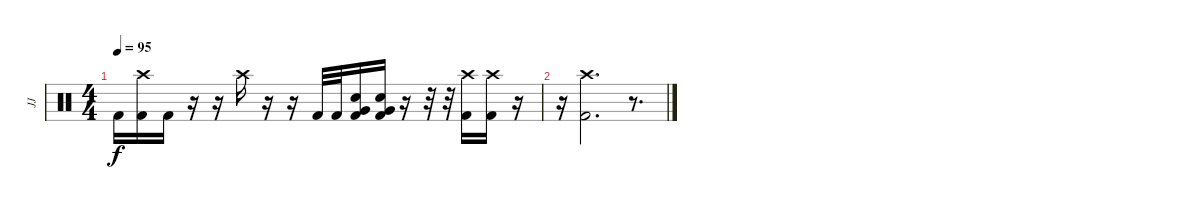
\track ("JJ" "JJ") {instrument percussion}
\staff {score}
\articulation defaults
\ts (4 4)
\tempo 95
\clef neutral
\ks c "Kick (hit) 2".16{dy f}
("Crash high (hit)" "Kick (hit) 2").16 "Kick (hit) 2".16 r.16 r.16 "Crash high (hit)".16 r.16 r.16 "Kick (hit) 2".32 "Kick (hit) 2".32 ("Very Low Tom (hit)" "Electric Snare (hit)" "Kick (hit) 2").16 ("Very Low Tom (hit)" "Electric Snare (hit)" "Kick (hit) 2").16 r.16 r.32 r.32 ("Crash high (hit)" "Kick (hit) 2").16 ("Crash high (hit)" "Kick (hit) 2").16 r.16 |
r.16 ("Crash high (hit)" "Kick (hit) 2").2{d} r.8{d}
